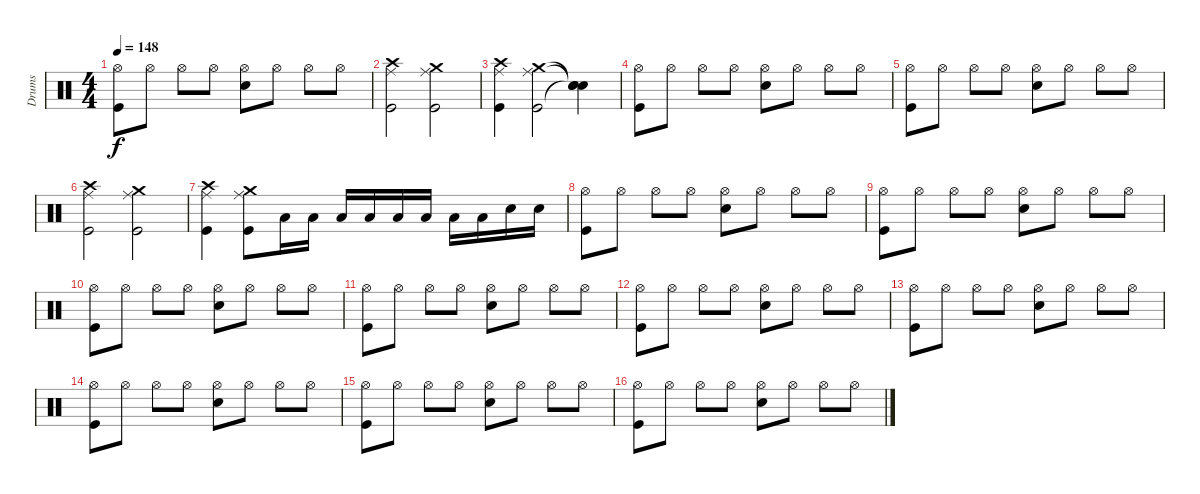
\track ("Drums" "Drums") {instrument percussion}
\staff {score}
\articulation defaults
\ts (4 4)
\tempo 148
\clef neutral
\ks c
("Hi-Hat (open)" "Kick (hit)").8{dy f} "Hi-Hat (open)".8 "Hi-Hat (open)".8 "Hi-Hat (open)".8 ("Snare (hit) 2" "Hi-Hat (open)").8 "Hi-Hat (open)".8 "Hi-Hat (open)".8 "Hi-Hat (open)".8 |
("Ride (middle)" "Crash high (hit)" "Kick (hit)").2 ("Ride (middle)" "Crash medium (hit)" "Kick (hit)").2 |
("Ride (middle)" "Crash high (hit)" "Kick (hit)").4 ("Ride (middle)" "Crash medium (hit)" "Kick (hit)").2 ("Snare (hit)"{t} "Snare (hit)"{t} "Snare (hit)"{t}).4 |
("Hi-Hat (open)" "Kick (hit)").8 "Hi-Hat (open)".8 "Hi-Hat (open)".8 "Hi-Hat (open)".8 ("Snare (hit) 2" "Hi-Hat (open)").8 "Hi-Hat (open)".8 "Hi-Hat (open)".8 "Hi-Hat (open)".8 |
("Hi-Hat (open)" "Kick (hit)").8 "Hi-Hat (open)".8 "Hi-Hat (open)".8 "Hi-Hat (open)".8 ("Snare (hit) 2" "Hi-Hat (open)").8 "Hi-Hat (open)".8 "Hi-Hat (open)".8 "Hi-Hat (open)".8 |
("Ride (middle)" "Crash high (hit)" "Kick (hit)").2 ("Ride (middle)" "Crash medium (hit)" "Kick (hit)").2 |
("Ride (middle)" "Crash high (hit)" "Kick (hit)").4 ("Ride (middle)" "Crash medium (hit)" "Kick (hit)").8 "Low Tom (hit)".16 "Low Tom (hit)".16 "Low Tom (hit)".16 "Low Tom (hit)".16 "Low Tom (hit)".16 "Low Tom (hit)".16 "Low Tom (hit)".16 "Low Tom (hit)".16 "Snare (hit) 2".16 "Snare (hit) 2".16 |
("Hi-Hat (open)" "Kick (hit)").8 "Hi-Hat (open)".8 "Hi-Hat (open)".8 "Hi-Hat (open)".8 ("Snare (hit) 2" "Hi-Hat (open)").8 "Hi-Hat (open)".8 "Hi-Hat (open)".8 "Hi-Hat (open)".8 |
("Kick (hit)" "Hi-Hat (open)").8 "Hi-Hat (open)".8 "Hi-Hat (open)".8 "Hi-Hat (open)".8 ("Snare (hit) 2" "Hi-Hat (open)").8 "Hi-Hat (open)".8 "Hi-Hat (open)".8 "Hi-Hat (open)".8 |
("Kick (hit)" "Hi-Hat (open)").8 "Hi-Hat (open)".8 "Hi-Hat (open)".8 "Hi-Hat (open)".8 ("Snare (hit) 2" "Hi-Hat (open)").8 "Hi-Hat (open)".8 "Hi-Hat (open)".8 "Hi-Hat (open)".8 |
("Kick (hit)" "Hi-Hat (open)").8 "Hi-Hat (open)".8 "Hi-Hat (open)".8 "Hi-Hat (open)".8 ("Snare (hit) 2" "Hi-Hat (open)").8 "Hi-Hat (open)".8 "Hi-Hat (open)".8 "Hi-Hat (open)".8 |
("Hi-Hat (open)" "Kick (hit)").8 "Hi-Hat (open)".8 "Hi-Hat (open)".8 "Hi-Hat (open)".8 ("Snare (hit) 2" "Hi-Hat (open)").8 "Hi-Hat (open)".8 "Hi-Hat (open)".8 "Hi-Hat (open)".8 |
("Kick (hit)" "Hi-Hat (open)").8 "Hi-Hat (open)".8 "Hi-Hat (open)".8 "Hi-Hat (open)".8 ("Snare (hit) 2" "Hi-Hat (open)").8 "Hi-Hat (open)".8 "Hi-Hat (open)".8 "Hi-Hat (open)".8 |
("Kick (hit)" "Hi-Hat (open)").8 "Hi-Hat (open)".8 "Hi-Hat (open)".8 "Hi-Hat (open)".8 ("Snare (hit) 2" "Hi-Hat (open)").8 "Hi-Hat (open)".8 "Hi-Hat (open)".8 "Hi-Hat (open)".8 |
("Kick (hit)" "Hi-Hat (open)").8 "Hi-Hat (open)".8 "Hi-Hat (open)".8 "Hi-Hat (open)".8 ("Snare (hit) 2" "Hi-Hat (open)").8 "Hi-Hat (open)".8 "Hi-Hat (open)".8 "Hi-Hat (open)".8 |
("Hi-Hat (open)" "Kick (hit)").8{volume 1} "Hi-Hat (open)".8 "Hi-Hat (open)".8 "Hi-Hat (open)".8 ("Snare (hit) 2" "Hi-Hat (open)").8 "Hi-Hat (open)".8 "Hi-Hat (open)".8 "Hi-Hat (open)".8
